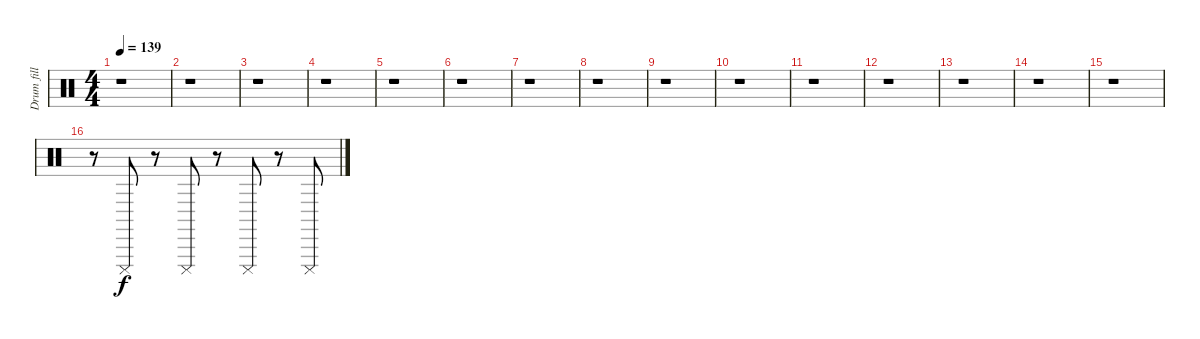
\track ("Drum fill" "Drum fill") {instrument percussion}
\staff {score}
\articulation defaults
\ts (4 4)
\tempo 139
\clef neutral
\ks c
r.1{dy f} |
r.1 |
r.1 |
r.1 |
r.1 |
r.1 |
r.1 |
r.1 |
r.1 |
r.1 |
r.1 |
r.1 |
r.1 |
r.1 |
r.1 |
r.8 "Cuica (mute)".8 r.8 "Cuica (mute)".8 r.8 "Cuica (mute)".8 r.8 "Cuica (mute)".8
